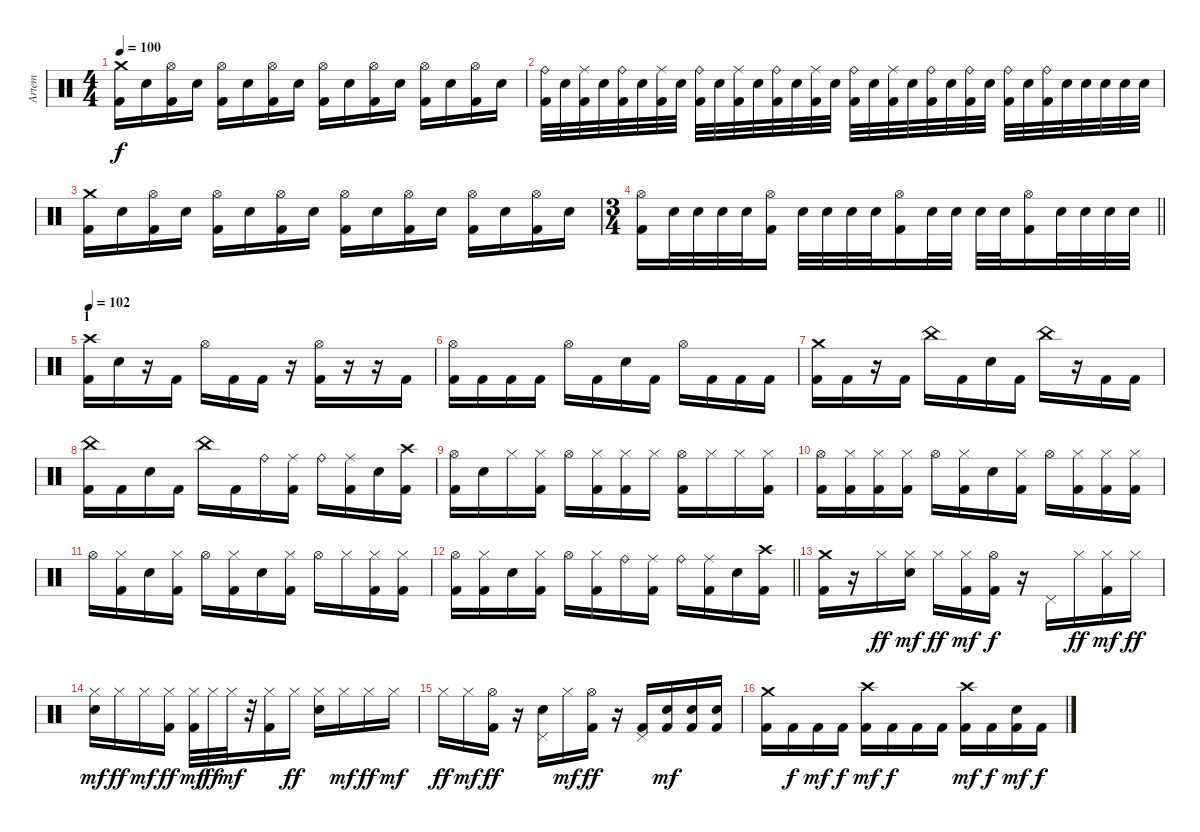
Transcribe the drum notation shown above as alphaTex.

\track ("Artem" "Artem") {instrument percussion}
\staff {score}
\articulation defaults
\ts (4 4)
\tempo 100
\clef neutral
\ks c
("Kick (hit) 2" "Crash medium (hit)").16{dy f} "Electric Snare (hit)".16 ("Hi-Hat (open)" "Kick (hit) 2").16 "Electric Snare (hit)".16 ("Hi-Hat (open)" "Kick (hit) 2").16 "Electric Snare (hit)".16 ("Hi-Hat (open)" "Kick (hit) 2").16 "Electric Snare (hit)".16 ("Hi-Hat (open)" "Kick (hit) 2").16 "Electric Snare (hit)".16 ("Hi-Hat (open)" "Kick (hit) 2").16 "Electric Snare (hit)".16 ("Hi-Hat (open)" "Kick (hit) 2").16 "Electric Snare (hit)".16 ("Hi-Hat (open)" "Kick (hit) 2").16 "Electric Snare (hit)".16 |
("Ride (bell)" "Kick (hit) 2").32 "Electric Snare (hit)".32 ("Ride (middle)" "Kick (hit) 2").32 "Electric Snare (hit)".32 ("Ride (bell)" "Kick (hit) 2").32 "Electric Snare (hit)".32 ("Ride (middle)" "Kick (hit) 2").32 "Electric Snare (hit)".32 ("Ride (bell)" "Kick (hit) 2").32 "Electric Snare (hit)".32 ("Ride (middle)" "Kick (hit) 2").32 "Electric Snare (hit)".32 ("Ride (bell)" "Kick (hit) 2").32 "Electric Snare (hit)".32 ("Ride (middle)" "Kick (hit) 2").32 "Electric Snare (hit)".32 ("Ride (bell)" "Kick (hit) 2").32 "Electric Snare (hit)".32 ("Ride (middle)" "Kick (hit) 2").32 "Electric Snare (hit)".32 ("Ride (bell)" "Kick (hit) 2").32 "Electric Snare (hit)".32 ("Ride (bell)" "Kick (hit) 2").32 "Electric Snare (hit)".32 ("Ride (bell)" "Kick (hit) 2").32 "Electric Snare (hit)".32 ("Ride (bell)" "Kick (hit) 2").32 "Electric Snare (hit)".32 "Electric Snare (hit)".32 "Electric Snare (hit)".32 "Electric Snare (hit)".32 "Electric Snare (hit)".32 |
("Kick (hit) 2" "Crash medium (hit)").16 "Electric Snare (hit)".16 ("Hi-Hat (open)" "Kick (hit) 2").16 "Electric Snare (hit)".16 ("Hi-Hat (open)" "Kick (hit) 2").16 "Electric Snare (hit)".16 ("Hi-Hat (open)" "Kick (hit) 2").16 "Electric Snare (hit)".16 ("Hi-Hat (open)" "Kick (hit) 2").16 "Electric Snare (hit)".16 ("Hi-Hat (open)" "Kick (hit) 2").16 "Electric Snare (hit)".16 ("Hi-Hat (open)" "Kick (hit) 2").16 "Electric Snare (hit)".16 ("Hi-Hat (open)" "Kick (hit) 2").16 "Electric Snare (hit)".16 |
\ts (3 4)
\barLineRight lightlight
("Kick (hit) 2" "Hi-Hat (open)").16 "Electric Snare (hit)".32 "Electric Snare (hit)".32 "Electric Snare (hit)".32 "Electric Snare (hit)".32 ("Kick (hit) 2" "Hi-Hat (open)").16 "Electric Snare (hit)".32 "Electric Snare (hit)".32 "Electric Snare (hit)".32 "Electric Snare (hit)".32 ("Kick (hit) 2" "Hi-Hat (open)").16 "Electric Snare (hit)".32 "Electric Snare (hit)".32 "Electric Snare (hit)".32 "Electric Snare (hit)".32 ("Kick (hit) 2" "Hi-Hat (open)").16 "Electric Snare (hit)".32 "Electric Snare (hit)".32 "Electric Snare (hit)".32 "Electric Snare (hit)".32 |
\section ("" "1")
\tempo 102
("Kick (hit) 2" "Crash high (hit)").16 "Electric Snare (hit)".16 r.16 "Kick (hit) 2".16 "Hi-Hat (open)".16 "Kick (hit) 2".16 "Kick (hit) 2".16 r.16 ("Kick (hit) 2" "Hi-Hat (open)").16 r.16 r.16 "Kick (hit) 2".16 |
("Kick (hit) 2" "Hi-Hat (open)").16 "Kick (hit) 2".16 "Kick (hit) 2".16 "Kick (hit) 2".16 "Hi-Hat (open)".16 "Kick (hit) 2".16 "Electric Snare (hit)".16 "Kick (hit) 2".16 "Hi-Hat (open)".16 "Kick (hit) 2".16 "Kick (hit) 2".16 "Kick (hit) 2".16 |
("Kick (hit) 2" "Crash medium (hit)").16 "Kick (hit) 2".16 r.16 "Kick (hit) 2".16 "China (hit)".16 "Kick (hit) 2".16 "Electric Snare (hit)".16 "Kick (hit) 2".16 "China (hit)".16 r.16 "Kick (hit) 2".16 "Kick (hit) 2".16 |
("Kick (hit) 2" "China (hit)").16 "Kick (hit) 2".16 "Electric Snare (hit)".16 "Kick (hit) 2".16 "China (hit)".16 "Kick (hit) 2".16 "Ride (bell)".16 ("Kick (hit) 2" "Ride (middle)").16 "Ride (bell)".16 ("Kick (hit) 2" "Ride (middle)").16 "Electric Snare (hit)".16 ("Kick (hit) 2" "Crash high (hit)").16 |
("Kick (hit) 2" "Hi-Hat (open)").16 "Electric Snare (hit)".16 "Hi-Hat (closed)".16 ("Kick (hit) 2" "Hi-Hat (closed)").16 "Hi-Hat (open)".16 ("Kick (hit) 2" "Hi-Hat (closed)").16 ("Kick (hit) 2" "Hi-Hat (closed)").16 "Hi-Hat (closed)".16 ("Kick (hit) 2" "Hi-Hat (open)").16 "Hi-Hat (closed)".16 "Hi-Hat (closed)".16 ("Kick (hit) 2" "Hi-Hat (closed)").16 |
("Kick (hit) 2" "Hi-Hat (open)").16 ("Kick (hit) 2" "Hi-Hat (closed)").16 ("Kick (hit) 2" "Hi-Hat (closed)").16 ("Kick (hit) 2" "Hi-Hat (closed)").16 "Hi-Hat (open)".16 ("Kick (hit) 2" "Hi-Hat (closed)").16 "Electric Snare (hit)".16 ("Kick (hit) 2" "Hi-Hat (closed)").16 "Hi-Hat (open)".16 ("Kick (hit) 2" "Hi-Hat (closed)").16 ("Kick (hit) 2" "Hi-Hat (closed)").16 ("Kick (hit) 2" "Hi-Hat (closed)").16 |
"Hi-Hat (open)".16 ("Kick (hit) 2" "Hi-Hat (closed)").16 "Electric Snare (hit)".16 ("Kick (hit) 2" "Hi-Hat (closed)").16 "Hi-Hat (open)".16 ("Kick (hit) 2" "Hi-Hat (closed)").16 "Electric Snare (hit)".16 ("Kick (hit) 2" "Hi-Hat (closed)").16 "Hi-Hat (open)".16 "Hi-Hat (closed)".16 ("Kick (hit) 2" "Hi-Hat (closed)").16 ("Kick (hit) 2" "Hi-Hat (closed)").16 |
\barLineRight lightlight
("Kick (hit) 2" "Hi-Hat (open)").16 ("Kick (hit) 2" "Hi-Hat (closed)").16 "Electric Snare (hit)".16 ("Kick (hit) 2" "Hi-Hat (closed)").16 "Hi-Hat (open)".16 ("Kick (hit) 2" "Hi-Hat (closed)").16 "Ride (bell)".16 ("Kick (hit) 2" "Ride (middle)").16 "Ride (bell)".16 ("Kick (hit) 2" "Ride (middle)").16 "Electric Snare (hit)".16 ("Kick (hit) 2" "Crash high (hit)").16 |
("Kick (hit) 2" "Crash medium (hit)").16 r.16 "Hi-Hat (closed)".16{dy ff} ("Electric Snare (hit)" "Hi-Hat (closed)").16{dy mf} "Hi-Hat (closed)".16{dy ff} ("Kick (hit) 2" "Hi-Hat (closed)").16{dy mf} ("Kick (hit) 2" "Hi-Hat (open)").16{dy f} r.16 "Pedal Hi-Hat (hit)".16 "Hi-Hat (closed)".16{dy ff} ("Kick (hit) 2" "Hi-Hat (closed)").16{dy mf} "Hi-Hat (closed)".16{dy ff} |
("Electric Snare (hit)" "Hi-Hat (closed)").16{dy mf} "Hi-Hat (closed)".16{dy ff} "Hi-Hat (closed)".16{dy mf} ("Kick (hit) 2" "Hi-Hat (closed)").16{dy ff} ("Kick (hit) 2" "Hi-Hat (closed)").32{dy mf} "Hi-Hat (closed)".32{dy ff} "Hi-Hat (closed)".32{dy mf} r.32 ("Kick (hit) 2" "Hi-Hat (closed)").16 "Hi-Hat (closed)".16{dy ff} ("Electric Snare (hit)" "Hi-Hat (closed)").16 "Hi-Hat (closed)".16{dy mf} "Hi-Hat (closed)".16{dy ff} "Hi-Hat (closed)".16{dy mf} |
"Hi-Hat (closed)".16{dy ff} "Hi-Hat (closed)".16{dy mf} ("Kick (hit) 2" "Hi-Hat (open)").16{dy ff} r.16 ("Electric Snare (hit)" "Pedal Hi-Hat (hit)").16 "Hi-Hat (closed)".16{dy mf} ("Kick (hit) 2" "Hi-Hat (open)").16{dy ff} r.16 ("Kick (hit) 2" "Pedal Hi-Hat (hit)").16 ("Kick (hit) 2" "Electric Snare (hit)").16{dy mf} ("Kick (hit) 2" "Electric Snare (hit)").16 ("Kick (hit) 2" "Electric Snare (hit)").16 |
("Kick (hit) 2" "Crash medium (hit)").16 "Kick (hit) 2".16{dy f} "Kick (hit) 2".16{dy mf} "Kick (hit) 2".16{dy f} ("Kick (hit) 2" "Crash high (hit)").16{dy mf} "Kick (hit) 2".16{dy f} "Kick (hit) 2".16 "Kick (hit) 2".16 ("Kick (hit) 2" "Crash high (hit)").16{dy mf} "Kick (hit) 2".16{dy f} ("Electric Snare (hit)" "Kick (hit) 2").16{dy mf} "Kick (hit) 2".16{dy f}
